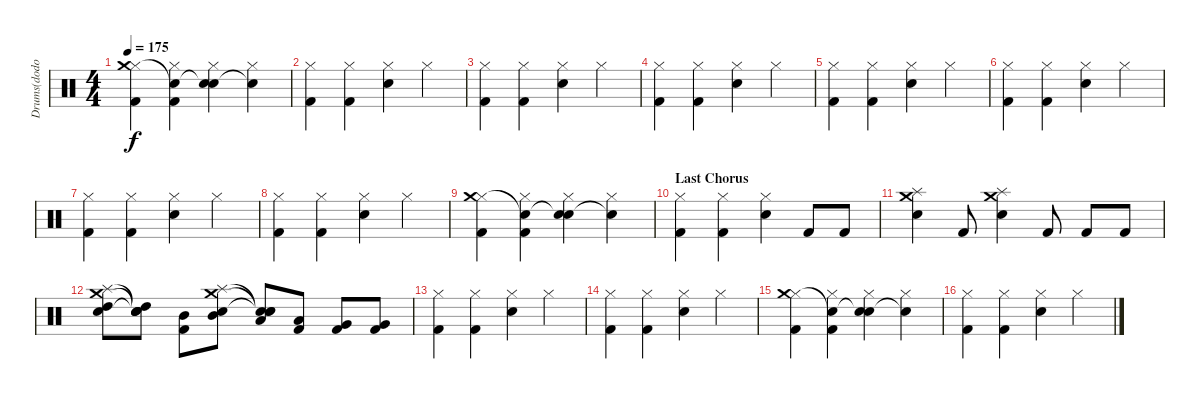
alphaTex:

\track ("Drums(dodo)" "Drums(dodo") {instrument percussion}
\staff {score}
\articulation defaults
\ts (4 4)
\tempo 175
\clef neutral
\ks c
("Hi-Hat (closed)" "Crash medium (hit)" "Kick (hit) 2").4{dy f} ("Hi-Hat (closed)" "Snare (hit) 2"{t} "Kick (hit) 2").4 ("Hi-Hat (closed)" "Snare (hit)"{t} "Snare (hit) 2").4 ("Hi-Hat (closed)" "Snare (hit)"{t}).4 |
("Hi-Hat (closed)" "Kick (hit) 2").4 ("Hi-Hat (closed)" "Kick (hit) 2").4 ("Hi-Hat (closed)" "Snare (hit) 2").4 "Hi-Hat (closed)".4 |
("Hi-Hat (closed)" "Kick (hit) 2").4 ("Hi-Hat (closed)" "Kick (hit) 2").4 ("Hi-Hat (closed)" "Snare (hit) 2").4 "Hi-Hat (closed)".4 |
("Hi-Hat (closed)" "Kick (hit) 2").4 ("Hi-Hat (closed)" "Kick (hit) 2").4 ("Hi-Hat (closed)" "Snare (hit) 2").4 "Hi-Hat (closed)".4 |
("Hi-Hat (closed)" "Kick (hit) 2").4 ("Hi-Hat (closed)" "Kick (hit) 2").4 ("Hi-Hat (closed)" "Snare (hit) 2").4 "Hi-Hat (closed)".4 |
("Hi-Hat (closed)" "Kick (hit) 2").4 ("Hi-Hat (closed)" "Kick (hit) 2").4 ("Hi-Hat (closed)" "Snare (hit) 2").4 "Hi-Hat (closed)".4 |
("Hi-Hat (closed)" "Kick (hit) 2").4 ("Hi-Hat (closed)" "Kick (hit) 2").4 ("Hi-Hat (closed)" "Snare (hit) 2").4 "Hi-Hat (closed)".4 |
("Hi-Hat (closed)" "Kick (hit) 2").4 ("Hi-Hat (closed)" "Kick (hit) 2").4 ("Hi-Hat (closed)" "Snare (hit) 2").4 "Hi-Hat (closed)".4 |
("Hi-Hat (closed)" "Crash medium (hit)" "Kick (hit) 2").4 ("Hi-Hat (closed)" "Snare (hit) 2"{t} "Kick (hit) 2").4 ("Hi-Hat (closed)" "Snare (hit)"{t} "Snare (hit) 2").4 ("Hi-Hat (closed)" "Snare (hit)"{t}).4 |
\section ("" "Last Chorus")
("Hi-Hat (closed)" "Kick (hit) 2").4 ("Hi-Hat (closed)" "Kick (hit) 2").4 ("Hi-Hat (closed)" "Snare (hit) 2").4 "Kick (hit) 2".8 "Kick (hit) 2".8 |
("Splash (hit)" "Snare (hit) 2" "Crash medium (hit)").4 "Kick (hit) 2".8 ("Splash (hit)" "Snare (hit) 2" "Crash medium (hit)").4 "Kick (hit) 2".8 "Kick (hit) 2".8 "Kick (hit) 2".8 |
("Splash (hit)" "Snare (hit) 2" "Crash medium (hit)" "High Tom (hit)").8 ("Snare (hit)"{t} "Snare (hit)"{t} "Snare (hit)"{t} "High Tom (hit)").8 ("Kick (hit) 2" "Mid Tom (hit)").8 ("Splash (hit)" "Snare (hit) 2" "Crash medium (hit)" "Mid Tom (hit)").8 ("Snare (hit)"{t} "Snare (hit)"{t} "Snare (hit)"{t} "Low Tom (hit)").8 ("Kick (hit) 2" "Low Tom (hit)").8 ("Kick (hit) 2" "Very Low Tom (hit)").8 ("Kick (hit) 2" "Very Low Tom (hit)").8 |
("Hi-Hat (closed)" "Kick (hit) 2").4 ("Hi-Hat (closed)" "Kick (hit) 2").4 ("Hi-Hat (closed)" "Snare (hit) 2").4 "Hi-Hat (closed)".4 |
("Hi-Hat (closed)" "Kick (hit) 2").4 ("Hi-Hat (closed)" "Kick (hit) 2").4 ("Hi-Hat (closed)" "Snare (hit) 2").4 "Hi-Hat (closed)".4 |
("Hi-Hat (closed)" "Crash medium (hit)" "Kick (hit) 2").4 ("Hi-Hat (closed)" "Snare (hit) 2"{t} "Kick (hit) 2").4 ("Hi-Hat (closed)" "Snare (hit)"{t} "Snare (hit) 2").4 ("Hi-Hat (closed)" "Snare (hit)"{t}).4 |
("Hi-Hat (closed)" "Kick (hit) 2").4 ("Hi-Hat (closed)" "Kick (hit) 2").4 ("Hi-Hat (closed)" "Snare (hit) 2").4 "Hi-Hat (closed)".4
